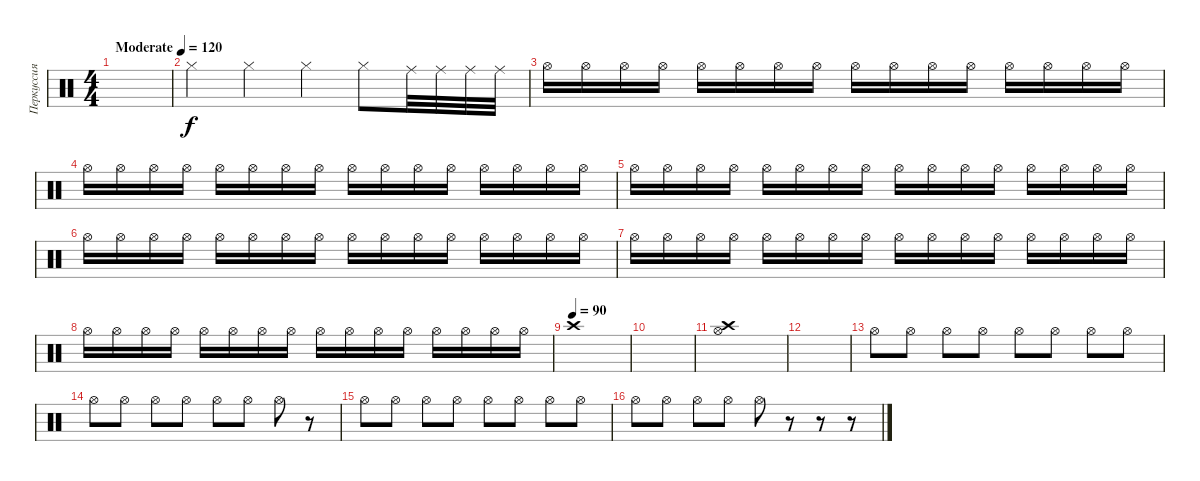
\track ("Перкуссия" "Перкуссия") {instrument percussion}
\staff {score}
\articulation defaults
\ts (4 4)
\tempo (120 "Moderate")
\clef neutral
\ks c
|
"Hi-Hat (closed)".4 "Hi-Hat (closed)".4 "Hi-Hat (closed)".4 "Hi-Hat (closed)".8 "Ride (middle)".32 "Ride (middle)".32 "Ride (middle)".32 "Ride (middle)".32 |
"Hi-Hat (open)".16 "Hi-Hat (open)".16 "Hi-Hat (open)".16 "Hi-Hat (open)".16 "Hi-Hat (open)".16 "Hi-Hat (open)".16 "Hi-Hat (open)".16 "Hi-Hat (open)".16 "Hi-Hat (open)".16 "Hi-Hat (open)".16 "Hi-Hat (open)".16 "Hi-Hat (open)".16 "Hi-Hat (open)".16 "Hi-Hat (open)".16 "Hi-Hat (open)".16 "Hi-Hat (open)".16 |
"Hi-Hat (open)".16 "Hi-Hat (open)".16 "Hi-Hat (open)".16 "Hi-Hat (open)".16 "Hi-Hat (open)".16 "Hi-Hat (open)".16 "Hi-Hat (open)".16 "Hi-Hat (open)".16 "Hi-Hat (open)".16 "Hi-Hat (open)".16 "Hi-Hat (open)".16 "Hi-Hat (open)".16 "Hi-Hat (open)".16 "Hi-Hat (open)".16 "Hi-Hat (open)".16 "Hi-Hat (open)".16 |
"Hi-Hat (open)".16 "Hi-Hat (open)".16 "Hi-Hat (open)".16 "Hi-Hat (open)".16 "Hi-Hat (open)".16 "Hi-Hat (open)".16 "Hi-Hat (open)".16 "Hi-Hat (open)".16 "Hi-Hat (open)".16 "Hi-Hat (open)".16 "Hi-Hat (open)".16 "Hi-Hat (open)".16 "Hi-Hat (open)".16 "Hi-Hat (open)".16 "Hi-Hat (open)".16 "Hi-Hat (open)".16 |
"Hi-Hat (open)".16 "Hi-Hat (open)".16 "Hi-Hat (open)".16 "Hi-Hat (open)".16 "Hi-Hat (open)".16 "Hi-Hat (open)".16 "Hi-Hat (open)".16 "Hi-Hat (open)".16 "Hi-Hat (open)".16 "Hi-Hat (open)".16 "Hi-Hat (open)".16 "Hi-Hat (open)".16 "Hi-Hat (open)".16 "Hi-Hat (open)".16 "Hi-Hat (open)".16 "Hi-Hat (open)".16 |
"Hi-Hat (open)".16 "Hi-Hat (open)".16 "Hi-Hat (open)".16 "Hi-Hat (open)".16 "Hi-Hat (open)".16 "Hi-Hat (open)".16 "Hi-Hat (open)".16 "Hi-Hat (open)".16 "Hi-Hat (open)".16 "Hi-Hat (open)".16 "Hi-Hat (open)".16 "Hi-Hat (open)".16 "Hi-Hat (open)".16 "Hi-Hat (open)".16 "Hi-Hat (open)".16 "Hi-Hat (open)".16 |
"Hi-Hat (open)".16 "Hi-Hat (open)".16 "Hi-Hat (open)".16 "Hi-Hat (open)".16 "Hi-Hat (open)".16 "Hi-Hat (open)".16 "Hi-Hat (open)".16 "Hi-Hat (open)".16 "Hi-Hat (open)".16 "Hi-Hat (open)".16 "Hi-Hat (open)".16 "Hi-Hat (open)".16 "Hi-Hat (open)".16 "Hi-Hat (open)".16 "Hi-Hat (open)".16 "Hi-Hat (open)".16 |
\tempo (90)
"Crash high (hit)".1 |
|
("Hi-Hat (open)" "Crash high (hit)").1 |
|
"Hi-Hat (open)".8 "Hi-Hat (open)".8 "Hi-Hat (open)".8 "Hi-Hat (open)".8 "Hi-Hat (open)".8 "Hi-Hat (open)".8 "Hi-Hat (open)".8 "Hi-Hat (open)".8 |
"Hi-Hat (open)".8 "Hi-Hat (open)".8 "Hi-Hat (open)".8 "Hi-Hat (open)".8 "Hi-Hat (open)".8 "Hi-Hat (open)".8 "Hi-Hat (open)".8 r.8 |
"Hi-Hat (open)".8 "Hi-Hat (open)".8 "Hi-Hat (open)".8 "Hi-Hat (open)".8 "Hi-Hat (open)".8 "Hi-Hat (open)".8 "Hi-Hat (open)".8 "Hi-Hat (open)".8 |
"Hi-Hat (open)".8 "Hi-Hat (open)".8 "Hi-Hat (open)".8 "Hi-Hat (open)".8 "Hi-Hat (open)".8 r.8 r.8 r.8
